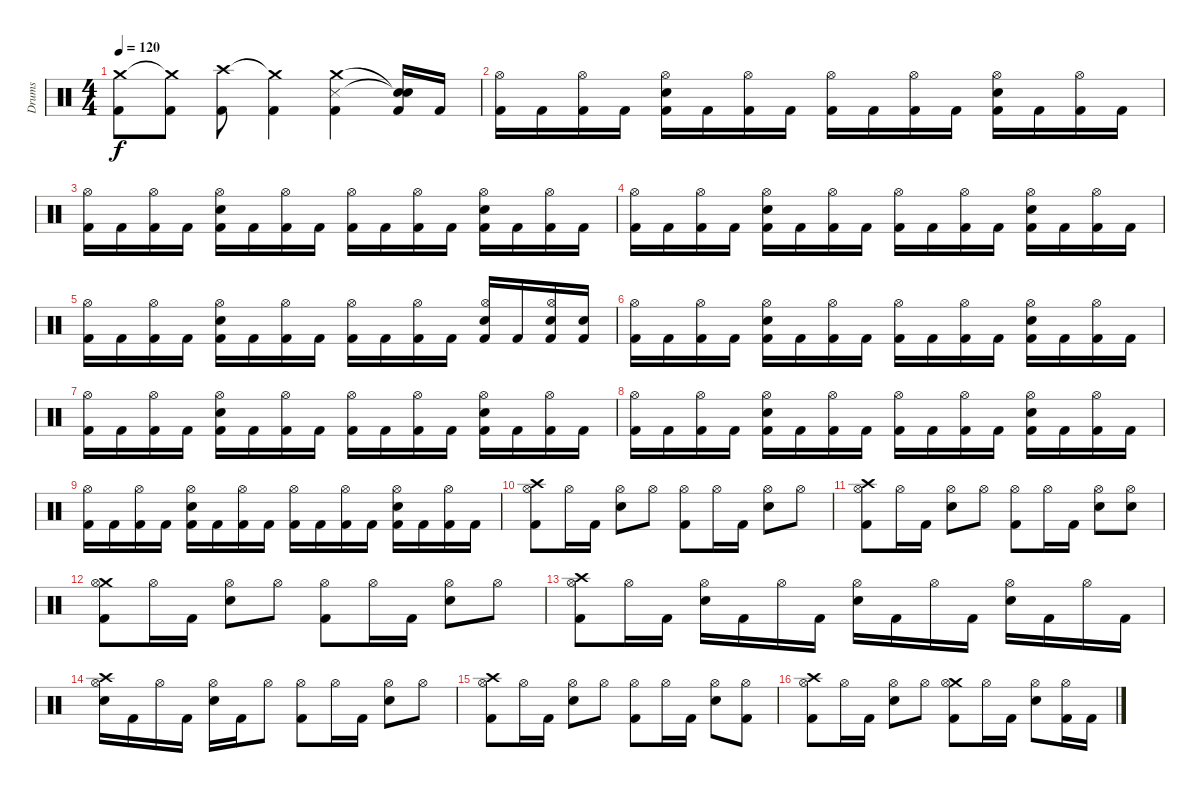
\track ("Drums" "Drums") {instrument percussion}
\staff {score}
\articulation defaults
\ts (4 4)
\tempo 120
\clef neutral
\ks c
("Crash medium (hit)" "Kick (hit) 2").8{dy f} ("Crash medium (hit)"{t} "Kick (hit) 2").8 ("Crash high (hit)" "Kick (hit) 2").8 ("Crash medium (hit)"{t} "Kick (hit) 2").4 ("Crash medium (hit)" "Snare (side stick) 3" "Kick (hit) 2").4 ("Snare (hit)"{t} "Snare (hit)"{t} "Kick (hit) 2").16 "Kick (hit) 2".16 |
("Hi-Hat (open)" "Kick (hit) 2").16 "Kick (hit) 2".16 ("Hi-Hat (open)" "Kick (hit) 2").16 "Kick (hit) 2".16 ("Hi-Hat (open)" "Electric Snare (hit)" "Kick (hit) 2").16 "Kick (hit) 2".16 ("Hi-Hat (open)" "Kick (hit) 2").16 "Kick (hit) 2".16 ("Hi-Hat (open)" "Kick (hit) 2").16 "Kick (hit) 2".16 ("Hi-Hat (open)" "Kick (hit) 2").16 "Kick (hit) 2".16 ("Hi-Hat (open)" "Electric Snare (hit)" "Kick (hit) 2").16 "Kick (hit) 2".16 ("Hi-Hat (open)" "Kick (hit) 2").16 "Kick (hit) 2".16 |
("Hi-Hat (open)" "Kick (hit) 2").16 "Kick (hit) 2".16 ("Hi-Hat (open)" "Kick (hit) 2").16 "Kick (hit) 2".16 ("Hi-Hat (open)" "Electric Snare (hit)" "Kick (hit) 2").16 "Kick (hit) 2".16 ("Hi-Hat (open)" "Kick (hit) 2").16 "Kick (hit) 2".16 ("Hi-Hat (open)" "Kick (hit) 2").16 "Kick (hit) 2".16 ("Hi-Hat (open)" "Kick (hit) 2").16 "Kick (hit) 2".16 ("Hi-Hat (open)" "Electric Snare (hit)" "Kick (hit) 2").16 "Kick (hit) 2".16 ("Hi-Hat (open)" "Kick (hit) 2").16 "Kick (hit) 2".16 |
("Hi-Hat (open)" "Kick (hit) 2").16 "Kick (hit) 2".16 ("Hi-Hat (open)" "Kick (hit) 2").16 "Kick (hit) 2".16 ("Hi-Hat (open)" "Electric Snare (hit)" "Kick (hit) 2").16 "Kick (hit) 2".16 ("Hi-Hat (open)" "Kick (hit) 2").16 "Kick (hit) 2".16 ("Hi-Hat (open)" "Kick (hit) 2").16 "Kick (hit) 2".16 ("Hi-Hat (open)" "Kick (hit) 2").16 "Kick (hit) 2".16 ("Hi-Hat (open)" "Electric Snare (hit)" "Kick (hit) 2").16 "Kick (hit) 2".16 ("Hi-Hat (open)" "Kick (hit) 2").16 "Kick (hit) 2".16 |
("Hi-Hat (open)" "Kick (hit) 2").16 "Kick (hit) 2".16 ("Hi-Hat (open)" "Kick (hit) 2").16 "Kick (hit) 2".16 ("Hi-Hat (open)" "Electric Snare (hit)" "Kick (hit) 2").16 "Kick (hit) 2".16 ("Hi-Hat (open)" "Kick (hit) 2").16 "Kick (hit) 2".16 ("Hi-Hat (open)" "Kick (hit) 2").16 "Kick (hit) 2".16 ("Hi-Hat (open)" "Kick (hit) 2").16 "Kick (hit) 2".16 ("Hi-Hat (open)" "Electric Snare (hit)" "Kick (hit) 2").16 "Kick (hit) 2".16 ("Hi-Hat (open)" "Electric Snare (hit)" "Kick (hit) 2").16 ("Electric Snare (hit)" "Kick (hit) 2").16 |
("Hi-Hat (open)" "Kick (hit) 2").16 "Kick (hit) 2".16 ("Hi-Hat (open)" "Kick (hit) 2").16 "Kick (hit) 2".16 ("Hi-Hat (open)" "Electric Snare (hit)" "Kick (hit) 2").16 "Kick (hit) 2".16 ("Hi-Hat (open)" "Kick (hit) 2").16 "Kick (hit) 2".16 ("Hi-Hat (open)" "Kick (hit) 2").16 "Kick (hit) 2".16 ("Hi-Hat (open)" "Kick (hit) 2").16 "Kick (hit) 2".16 ("Hi-Hat (open)" "Electric Snare (hit)" "Kick (hit) 2").16 "Kick (hit) 2".16 ("Hi-Hat (open)" "Kick (hit) 2").16 "Kick (hit) 2".16 |
("Hi-Hat (open)" "Kick (hit) 2").16 "Kick (hit) 2".16 ("Hi-Hat (open)" "Kick (hit) 2").16 "Kick (hit) 2".16 ("Hi-Hat (open)" "Electric Snare (hit)" "Kick (hit) 2").16 "Kick (hit) 2".16 ("Hi-Hat (open)" "Kick (hit) 2").16 "Kick (hit) 2".16 ("Hi-Hat (open)" "Kick (hit) 2").16 "Kick (hit) 2".16 ("Hi-Hat (open)" "Kick (hit) 2").16 "Kick (hit) 2".16 ("Hi-Hat (open)" "Electric Snare (hit)" "Kick (hit) 2").16 "Kick (hit) 2".16 ("Hi-Hat (open)" "Kick (hit) 2").16 "Kick (hit) 2".16 |
("Hi-Hat (open)" "Kick (hit) 2").16 "Kick (hit) 2".16 ("Hi-Hat (open)" "Kick (hit) 2").16 "Kick (hit) 2".16 ("Hi-Hat (open)" "Electric Snare (hit)" "Kick (hit) 2").16 "Kick (hit) 2".16 ("Hi-Hat (open)" "Kick (hit) 2").16 "Kick (hit) 2".16 ("Hi-Hat (open)" "Kick (hit) 2").16 "Kick (hit) 2".16 ("Hi-Hat (open)" "Kick (hit) 2").16 "Kick (hit) 2".16 ("Hi-Hat (open)" "Electric Snare (hit)" "Kick (hit) 2").16 "Kick (hit) 2".16 ("Hi-Hat (open)" "Kick (hit) 2").16 "Kick (hit) 2".16 |
("Hi-Hat (open)" "Kick (hit) 2").16 "Kick (hit) 2".16 ("Hi-Hat (open)" "Kick (hit) 2").16 "Kick (hit) 2".16 ("Hi-Hat (open)" "Electric Snare (hit)" "Kick (hit) 2").16 "Kick (hit) 2".16 ("Hi-Hat (open)" "Kick (hit) 2").16 "Kick (hit) 2".16 ("Hi-Hat (open)" "Kick (hit) 2").16 "Kick (hit) 2".16 ("Hi-Hat (open)" "Kick (hit) 2").16 "Kick (hit) 2".16 ("Hi-Hat (open)" "Electric Snare (hit)" "Kick (hit) 2").16 "Kick (hit) 2".16 ("Hi-Hat (open)" "Kick (hit) 2").16 "Kick (hit) 2".16 |
("Crash high (hit)" "Hi-Hat (open)" "Kick (hit) 2").8 "Hi-Hat (open)".16 "Kick (hit) 2".16 ("Hi-Hat (open)" "Electric Snare (hit)").8 "Hi-Hat (open)".8 ("Hi-Hat (open)" "Kick (hit) 2").8 "Hi-Hat (open)".16 "Kick (hit) 2".16 ("Hi-Hat (open)" "Electric Snare (hit)").8 "Hi-Hat (open)".8 |
("Crash high (hit)" "Hi-Hat (open)" "Kick (hit) 2").8 "Hi-Hat (open)".16 "Kick (hit) 2".16 ("Hi-Hat (open)" "Electric Snare (hit)").8 "Hi-Hat (open)".8 ("Hi-Hat (open)" "Kick (hit) 2").8 "Hi-Hat (open)".16 "Kick (hit) 2".16 ("Hi-Hat (open)" "Electric Snare (hit)").8 ("Hi-Hat (open)" "Electric Snare (hit)").8 |
("Crash medium (hit)" "Hi-Hat (open)" "Kick (hit) 2").8 "Hi-Hat (open)".16 "Kick (hit) 2".16 ("Hi-Hat (open)" "Electric Snare (hit)").8 "Hi-Hat (open)".8 ("Hi-Hat (open)" "Kick (hit) 2").8 "Hi-Hat (open)".16 "Kick (hit) 2".16 ("Hi-Hat (open)" "Electric Snare (hit)").8 "Hi-Hat (open)".8 |
("Crash high (hit)" "Hi-Hat (open)" "Kick (hit) 2").8 "Hi-Hat (open)".16 "Kick (hit) 2".16 ("Hi-Hat (open)" "Electric Snare (hit)").16 "Kick (hit) 2".16 "Hi-Hat (open)".16 "Kick (hit) 2".16 ("Hi-Hat (open)" "Electric Snare (hit)").16 "Kick (hit) 2".16 "Hi-Hat (open)".16 "Kick (hit) 2".16 ("Hi-Hat (open)" "Electric Snare (hit)").16 "Kick (hit) 2".16 "Hi-Hat (open)".16 "Kick (hit) 2".16 |
("Crash high (hit)" "Hi-Hat (open)" "Electric Snare (hit)").16 "Kick (hit) 2".16 "Hi-Hat (open)".16 "Kick (hit) 2".16 ("Hi-Hat (open)" "Electric Snare (hit)").16 "Kick (hit) 2".16 "Hi-Hat (open)".8 ("Hi-Hat (open)" "Kick (hit) 2").8 "Hi-Hat (open)".16 "Kick (hit) 2".16 ("Hi-Hat (open)" "Electric Snare (hit)").8 "Hi-Hat (open)".8 |
("Crash high (hit)" "Hi-Hat (open)" "Kick (hit) 2").8 "Hi-Hat (open)".16 "Kick (hit) 2".16 ("Hi-Hat (open)" "Electric Snare (hit)").8 "Hi-Hat (open)".8 ("Hi-Hat (open)" "Kick (hit) 2").8 "Hi-Hat (open)".16 "Kick (hit) 2".16 ("Hi-Hat (open)" "Electric Snare (hit)").8 ("Hi-Hat (open)" "Kick (hit) 2").8 |
("Crash high (hit)" "Hi-Hat (open)" "Kick (hit) 2").8 "Hi-Hat (open)".16 "Kick (hit) 2".16 ("Hi-Hat (open)" "Electric Snare (hit)").8 "Hi-Hat (open)".8 ("Crash medium (hit)" "Hi-Hat (open)" "Kick (hit) 2").8 "Hi-Hat (open)".16 "Kick (hit) 2".16 ("Hi-Hat (open)" "Electric Snare (hit)").8 ("Hi-Hat (open)" "Kick (hit) 2").16 "Kick (hit) 2".16
